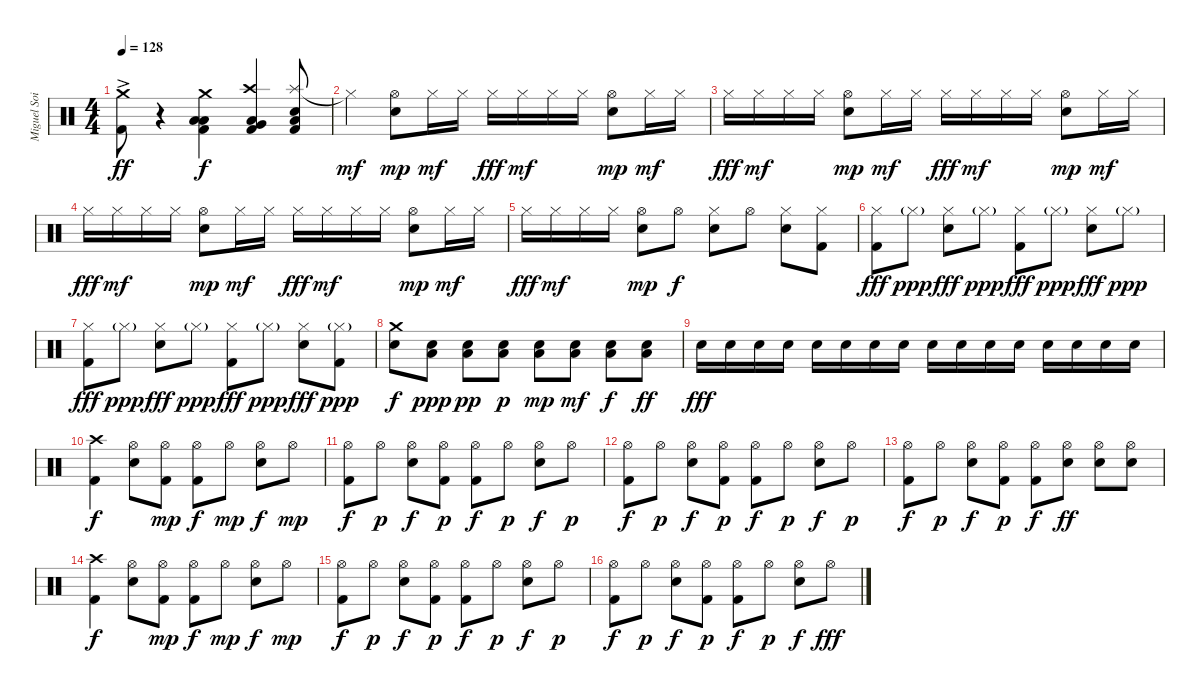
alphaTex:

\track ("Miguel Soifer (Batería)" "Miguel Soi") {instrument percussion}
\staff {score}
\articulation defaults
\ts (4 4)
\tempo 128
\clef neutral
\ks c
("Crash medium (hit)"{ac} "Kick (hit) 2").8{dy ff} r.4 ("Crash medium (hit)" "Low Floor Tom (hit)" "Low Tom (hit)" "Kick (hit) 2").4{dy f} ("Crash high (hit)" "Very Low Tom (hit)" "Low Floor Tom (hit)" "Kick (hit) 2").4 ("Splash (hit)" "Snare (hit) 2" "Low Floor Tom (hit)" "Kick (hit) 2").8 |
"Hi-Hat (closed)"{t}.4{dy mf} ("Hi-Hat (open)" "Snare (hit) 2").8{dy mp} "Hi-Hat (closed)".16{dy mf} "Hi-Hat (closed)".16 "Hi-Hat (closed)".16{dy fff} "Hi-Hat (closed)".16{dy mf} "Hi-Hat (closed)".16 "Hi-Hat (closed)".16 ("Hi-Hat (open)" "Snare (hit) 2").8{dy mp} "Hi-Hat (closed)".16{dy mf} "Hi-Hat (closed)".16 |
"Hi-Hat (closed)".16{dy fff} "Hi-Hat (closed)".16{dy mf} "Hi-Hat (closed)".16 "Hi-Hat (closed)".16 ("Hi-Hat (open)" "Snare (hit) 2").8{dy mp} "Hi-Hat (closed)".16{dy mf} "Hi-Hat (closed)".16 "Hi-Hat (closed)".16{dy fff} "Hi-Hat (closed)".16{dy mf} "Hi-Hat (closed)".16 "Hi-Hat (closed)".16 ("Hi-Hat (open)" "Snare (hit) 2").8{dy mp} "Hi-Hat (closed)".16{dy mf} "Hi-Hat (closed)".16 |
"Hi-Hat (closed)".16{dy fff} "Hi-Hat (closed)".16{dy mf} "Hi-Hat (closed)".16 "Hi-Hat (closed)".16 ("Hi-Hat (open)" "Snare (hit) 2").8{dy mp} "Hi-Hat (closed)".16{dy mf} "Hi-Hat (closed)".16 "Hi-Hat (closed)".16{dy fff} "Hi-Hat (closed)".16{dy mf} "Hi-Hat (closed)".16 "Hi-Hat (closed)".16 ("Hi-Hat (open)" "Snare (hit) 2").8{dy mp} "Hi-Hat (closed)".16{dy mf} "Hi-Hat (closed)".16 |
"Hi-Hat (closed)".16{dy fff} "Hi-Hat (closed)".16{dy mf} "Hi-Hat (closed)".16 "Hi-Hat (closed)".16 ("Hi-Hat (open)" "Snare (hit) 2").8{dy mp} "Hi-Hat (open)".8{dy f} ("Hi-Hat (closed)" "Snare (hit) 2").8 "Hi-Hat (open)".8 ("Hi-Hat (closed)" "Snare (hit) 2").8 ("Hi-Hat (closed)" "Kick (hit) 2").8 |
("Hi-Hat (closed)" "Kick (hit) 2").8{dy fff} "Hi-Hat (closed)"{g}.8{dy ppp} ("Hi-Hat (closed)" "Snare (hit) 2").8{dy fff} "Hi-Hat (closed)"{g}.8{dy ppp} ("Hi-Hat (closed)" "Kick (hit) 2").8{dy fff} "Hi-Hat (closed)"{g}.8{dy ppp} ("Hi-Hat (closed)" "Snare (hit) 2").8{dy fff} "Hi-Hat (closed)"{g}.8{dy ppp} |
("Hi-Hat (closed)" "Kick (hit) 2").8{dy fff} "Hi-Hat (closed)"{g}.8{dy ppp} ("Hi-Hat (closed)" "Snare (hit) 2").8{dy fff} "Hi-Hat (closed)"{g}.8{dy ppp} ("Hi-Hat (closed)" "Kick (hit) 2").8{dy fff} "Hi-Hat (closed)"{g}.8{dy ppp} ("Hi-Hat (closed)" "Snare (hit) 2").8{dy fff} ("Hi-Hat (closed)"{g} "Kick (hit) 2").8{dy ppp} |
("Crash medium (hit)" "Snare (hit) 2").8{dy f} ("Low Floor Tom (hit)" "Snare (hit) 2").8{dy ppp} ("Low Floor Tom (hit)" "Snare (hit) 2").8{dy pp} ("Low Floor Tom (hit)" "Snare (hit) 2").8{dy p} ("Low Floor Tom (hit)" "Snare (hit) 2").8{dy mp} ("Low Floor Tom (hit)" "Snare (hit) 2").8{dy mf} ("Low Floor Tom (hit)" "Snare (hit) 2").8{dy f} ("Low Floor Tom (hit)" "Snare (hit) 2").8{dy ff} |
"Snare (hit) 2".16{dy fff} "Snare (hit) 2".16 "Snare (hit) 2".16 "Snare (hit) 2".16 "Snare (hit) 2".16 "Snare (hit) 2".16 "Snare (hit) 2".16 "Snare (hit) 2".16 "Snare (hit) 2".16 "Snare (hit) 2".16 "Snare (hit) 2".16 "Snare (hit) 2".16 "Snare (hit) 2".16 "Snare (hit) 2".16 "Snare (hit) 2".16 "Snare (hit) 2".16 |
("Crash high (hit)" "Kick (hit) 2").4{dy f volume 13} ("Hi-Hat (open)" "Snare (hit) 2").8 ("Hi-Hat (open)" "Kick (hit) 2").8{dy mp} ("Hi-Hat (open)" "Kick (hit) 2").8{dy f} "Hi-Hat (open)".8{dy mp} ("Hi-Hat (open)" "Snare (hit) 2").8{dy f} "Hi-Hat (open)".8{dy mp} |
("Hi-Hat (open)" "Kick (hit) 2").8{dy f} "Hi-Hat (open)".8{dy p} ("Hi-Hat (open)" "Snare (hit) 2").8{dy f} ("Hi-Hat (open)" "Kick (hit) 2").8{dy p} ("Hi-Hat (open)" "Kick (hit) 2").8{dy f} "Hi-Hat (open)".8{dy p} ("Hi-Hat (open)" "Snare (hit) 2").8{dy f} "Hi-Hat (open)".8{dy p} |
("Hi-Hat (open)" "Kick (hit) 2").8{dy f} "Hi-Hat (open)".8{dy p} ("Hi-Hat (open)" "Snare (hit) 2").8{dy f} ("Hi-Hat (open)" "Kick (hit) 2").8{dy p} ("Hi-Hat (open)" "Kick (hit) 2").8{dy f} "Hi-Hat (open)".8{dy p} ("Hi-Hat (open)" "Snare (hit) 2").8{dy f} "Hi-Hat (open)".8{dy p} |
("Hi-Hat (open)" "Kick (hit) 2").8{dy f} "Hi-Hat (open)".8{dy p} ("Hi-Hat (open)" "Snare (hit) 2").8{dy f} ("Hi-Hat (open)" "Kick (hit) 2").8{dy p} ("Hi-Hat (open)" "Kick (hit) 2").8{dy f} ("Hi-Hat (open)" "Snare (hit) 2").8{dy ff} ("Hi-Hat (open)" "Snare (hit) 2").8 ("Hi-Hat (open)" "Snare (hit) 2").8 |
("Crash high (hit)" "Kick (hit) 2").4{dy f} ("Hi-Hat (open)" "Snare (hit) 2").8 ("Hi-Hat (open)" "Kick (hit) 2").8{dy mp} ("Hi-Hat (open)" "Kick (hit) 2").8{dy f} "Hi-Hat (open)".8{dy mp} ("Hi-Hat (open)" "Snare (hit) 2").8{dy f} "Hi-Hat (open)".8{dy mp} |
("Hi-Hat (open)" "Kick (hit) 2").8{dy f} "Hi-Hat (open)".8{dy p} ("Hi-Hat (open)" "Snare (hit) 2").8{dy f} ("Hi-Hat (open)" "Kick (hit) 2").8{dy p} ("Hi-Hat (open)" "Kick (hit) 2").8{dy f} "Hi-Hat (open)".8{dy p} ("Hi-Hat (open)" "Snare (hit) 2").8{dy f} "Hi-Hat (open)".8{dy p} |
("Hi-Hat (open)" "Kick (hit) 2").8{dy f} "Hi-Hat (open)".8{dy p} ("Hi-Hat (open)" "Snare (hit) 2").8{dy f} ("Hi-Hat (open)" "Kick (hit) 2").8{dy p} ("Hi-Hat (open)" "Kick (hit) 2").8{dy f} "Hi-Hat (open)".8{dy p} ("Hi-Hat (open)" "Snare (hit) 2").8{dy f} "Hi-Hat (open)".8{dy fff}
